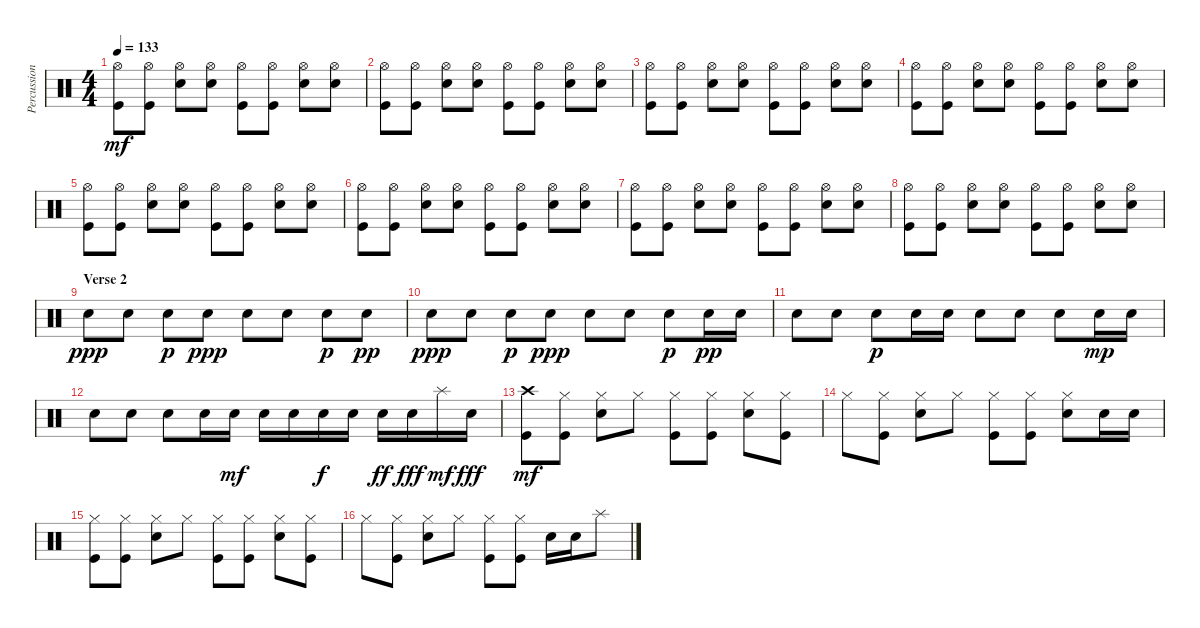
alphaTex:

\track ("Percussion" "Percussion") {instrument percussion}
\staff {score}
\articulation defaults
\ts (4 4)
\tempo 133
\clef neutral
\ks c
("Hi-Hat (open)" "Kick (hit)").8{dy mf} ("Hi-Hat (open)" "Kick (hit)").8 ("Hi-Hat (open)" "Snare (hit) 2").8 ("Hi-Hat (open)" "Snare (hit) 2").8 ("Hi-Hat (open)" "Kick (hit)").8 ("Hi-Hat (open)" "Kick (hit)").8 ("Hi-Hat (open)" "Snare (hit) 2").8 ("Hi-Hat (open)" "Snare (hit) 2").8 |
("Hi-Hat (open)" "Kick (hit)").8 ("Hi-Hat (open)" "Kick (hit)").8 ("Hi-Hat (open)" "Snare (hit) 2").8 ("Hi-Hat (open)" "Snare (hit) 2").8 ("Hi-Hat (open)" "Kick (hit)").8 ("Hi-Hat (open)" "Kick (hit)").8 ("Hi-Hat (open)" "Snare (hit) 2").8 ("Hi-Hat (open)" "Snare (hit) 2").8 |
("Hi-Hat (open)" "Kick (hit)").8 ("Hi-Hat (open)" "Kick (hit)").8 ("Hi-Hat (open)" "Snare (hit) 2").8 ("Hi-Hat (open)" "Snare (hit) 2").8 ("Hi-Hat (open)" "Kick (hit)").8 ("Hi-Hat (open)" "Kick (hit)").8 ("Hi-Hat (open)" "Snare (hit) 2").8 ("Hi-Hat (open)" "Snare (hit) 2").8 |
("Hi-Hat (open)" "Kick (hit)").8 ("Hi-Hat (open)" "Kick (hit)").8 ("Hi-Hat (open)" "Snare (hit) 2").8 ("Hi-Hat (open)" "Snare (hit) 2").8 ("Hi-Hat (open)" "Kick (hit)").8 ("Hi-Hat (open)" "Kick (hit)").8 ("Hi-Hat (open)" "Snare (hit) 2").8 ("Hi-Hat (open)" "Snare (hit) 2").8 |
("Hi-Hat (open)" "Kick (hit)").8 ("Hi-Hat (open)" "Kick (hit)").8 ("Hi-Hat (open)" "Snare (hit) 2").8 ("Hi-Hat (open)" "Snare (hit) 2").8 ("Hi-Hat (open)" "Kick (hit)").8 ("Hi-Hat (open)" "Kick (hit)").8 ("Hi-Hat (open)" "Snare (hit) 2").8 ("Hi-Hat (open)" "Snare (hit) 2").8 |
("Hi-Hat (open)" "Kick (hit)").8 ("Hi-Hat (open)" "Kick (hit)").8 ("Hi-Hat (open)" "Snare (hit) 2").8 ("Hi-Hat (open)" "Snare (hit) 2").8 ("Hi-Hat (open)" "Kick (hit)").8 ("Hi-Hat (open)" "Kick (hit)").8 ("Hi-Hat (open)" "Snare (hit) 2").8 ("Hi-Hat (open)" "Snare (hit) 2").8 |
("Hi-Hat (open)" "Kick (hit)").8 ("Hi-Hat (open)" "Kick (hit)").8 ("Hi-Hat (open)" "Snare (hit) 2").8 ("Hi-Hat (open)" "Snare (hit) 2").8 ("Hi-Hat (open)" "Kick (hit)").8 ("Hi-Hat (open)" "Kick (hit)").8 ("Hi-Hat (open)" "Snare (hit) 2").8 ("Hi-Hat (open)" "Snare (hit) 2").8 |
("Hi-Hat (open)" "Kick (hit)").8 ("Hi-Hat (open)" "Kick (hit)").8 ("Hi-Hat (open)" "Snare (hit) 2").8 ("Hi-Hat (open)" "Snare (hit) 2").8 ("Hi-Hat (open)" "Kick (hit)").8 ("Hi-Hat (open)" "Kick (hit)").8 ("Hi-Hat (open)" "Snare (hit) 2").8 ("Hi-Hat (open)" "Snare (hit) 2").8 |
\section ("" "Verse 2")
"Snare (hit) 2".8{dy ppp} "Snare (hit) 2".8 "Snare (hit) 2".8{dy p} "Snare (hit) 2".8{dy ppp} "Snare (hit) 2".8 "Snare (hit) 2".8 "Snare (hit) 2".8{dy p} "Snare (hit) 2".8{dy pp} |
"Snare (hit) 2".8{dy ppp} "Snare (hit) 2".8 "Snare (hit) 2".8{dy p} "Snare (hit) 2".8{dy ppp} "Snare (hit) 2".8 "Snare (hit) 2".8 "Snare (hit) 2".8{dy p} "Snare (hit) 2".16{dy pp} "Snare (hit) 2".16 |
"Snare (hit) 2".8 "Snare (hit) 2".8 "Snare (hit) 2".8{dy p} "Snare (hit) 2".16 "Snare (hit) 2".16 "Snare (hit) 2".8 "Snare (hit) 2".8 "Snare (hit) 2".8 "Snare (hit) 2".16{dy mp} "Snare (hit) 2".16 |
"Snare (hit) 2".8 "Snare (hit) 2".8 "Snare (hit) 2".8 "Snare (hit) 2".16 "Snare (hit) 2".16{dy mf} "Snare (hit) 2".16 "Snare (hit) 2".16 "Snare (hit) 2".16{dy f} "Snare (hit) 2".16 "Snare (hit) 2".16{dy ff} "Snare (hit) 2".16{dy fff} "Splash (hit)".16{dy mf} "Snare (hit) 2".16{dy fff} |
("Crash high (hit)" "Kick (hit)").8{dy mf} ("Hi-Hat (closed)" "Kick (hit)").8 ("Hi-Hat (closed)" "Snare (hit) 2").8 "Hi-Hat (closed)".8 ("Hi-Hat (closed)" "Kick (hit)").8 ("Hi-Hat (closed)" "Kick (hit)").8 ("Hi-Hat (closed)" "Snare (hit) 2").8 ("Hi-Hat (closed)" "Kick (hit)").8 |
"Hi-Hat (closed)".8 ("Hi-Hat (closed)" "Kick (hit)").8 ("Hi-Hat (closed)" "Snare (hit) 2").8 "Hi-Hat (closed)".8 ("Hi-Hat (closed)" "Kick (hit)").8 ("Hi-Hat (closed)" "Kick (hit)").8 ("Hi-Hat (closed)" "Snare (hit) 2").8 "Snare (hit) 2".16 "Snare (hit) 2".16 |
("Hi-Hat (closed)" "Kick (hit)").8 ("Hi-Hat (closed)" "Kick (hit)").8 ("Hi-Hat (closed)" "Snare (hit) 2").8 "Hi-Hat (closed)".8 ("Hi-Hat (closed)" "Kick (hit)").8 ("Hi-Hat (closed)" "Kick (hit)").8 ("Hi-Hat (closed)" "Snare (hit) 2").8 ("Hi-Hat (closed)" "Kick (hit)").8 |
"Hi-Hat (closed)".8 ("Hi-Hat (closed)" "Kick (hit)").8 ("Hi-Hat (closed)" "Snare (hit) 2").8 "Hi-Hat (closed)".8 ("Hi-Hat (closed)" "Kick (hit)").8 ("Hi-Hat (closed)" "Kick (hit)").8 "Snare (hit) 2".16 "Snare (hit) 2".16 "Splash (hit)".8
